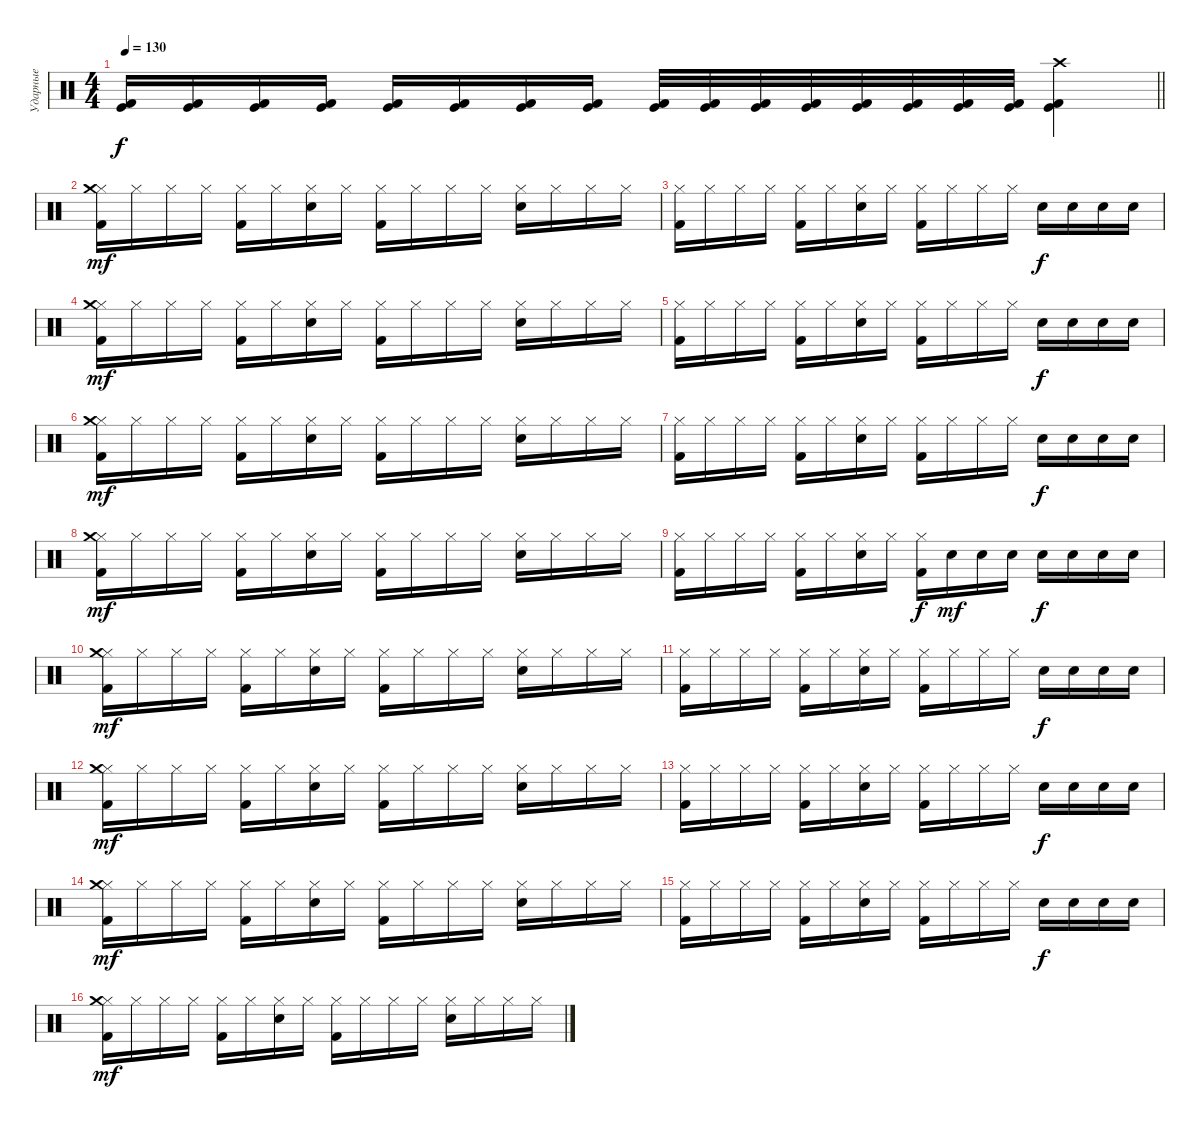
\track ("Ударные" "Ударные") {instrument percussion}
\staff {score}
\articulation defaults
\ts (4 4)
\tempo 130
\clef neutral
\barLineRight lightlight
\ks c
("Kick (hit) 2" "Kick (hit)").16{dy f} ("Kick (hit) 2" "Kick (hit)").16 ("Kick (hit) 2" "Kick (hit)").16 ("Kick (hit) 2" "Kick (hit)").16 ("Kick (hit) 2" "Kick (hit)").16 ("Kick (hit) 2" "Kick (hit)").16 ("Kick (hit) 2" "Kick (hit)").16 ("Kick (hit) 2" "Kick (hit)").16 ("Kick (hit) 2" "Kick (hit)").32 ("Kick (hit) 2" "Kick (hit)").32 ("Kick (hit) 2" "Kick (hit)").32 ("Kick (hit) 2" "Kick (hit)").32 ("Kick (hit) 2" "Kick (hit)").32 ("Kick (hit) 2" "Kick (hit)").32 ("Kick (hit) 2" "Kick (hit)").32 ("Kick (hit) 2" "Kick (hit)").32 ("Kick (hit) 2" "Kick (hit)" "Crash high (hit)").4 |
("Hi-Hat (closed)" "Crash medium (hit)" "Kick (hit) 2").16{dy mf} "Hi-Hat (closed)".16 "Hi-Hat (closed)".16 "Hi-Hat (closed)".16 ("Hi-Hat (closed)" "Kick (hit) 2").16 "Hi-Hat (closed)".16 ("Hi-Hat (closed)" "Electric Snare (hit)").16 "Hi-Hat (closed)".16 ("Hi-Hat (closed)" "Kick (hit) 2").16 "Hi-Hat (closed)".16 "Hi-Hat (closed)".16 "Hi-Hat (closed)".16 ("Hi-Hat (closed)" "Electric Snare (hit)").16 "Hi-Hat (closed)".16 "Hi-Hat (closed)".16 "Hi-Hat (closed)".16 |
("Hi-Hat (closed)" "Kick (hit) 2").16 "Hi-Hat (closed)".16 "Hi-Hat (closed)".16 "Hi-Hat (closed)".16 ("Hi-Hat (closed)" "Kick (hit) 2").16 "Hi-Hat (closed)".16 ("Hi-Hat (closed)" "Electric Snare (hit)").16 "Hi-Hat (closed)".16 ("Hi-Hat (closed)" "Kick (hit) 2").16 "Hi-Hat (closed)".16 "Hi-Hat (closed)".16 "Hi-Hat (closed)".16 "Electric Snare (hit)".16{dy f} "Electric Snare (hit)".16 "Electric Snare (hit)".16 "Electric Snare (hit)".16 |
("Hi-Hat (closed)" "Crash medium (hit)" "Kick (hit) 2").16{dy mf} "Hi-Hat (closed)".16 "Hi-Hat (closed)".16 "Hi-Hat (closed)".16 ("Hi-Hat (closed)" "Kick (hit) 2").16 "Hi-Hat (closed)".16 ("Hi-Hat (closed)" "Electric Snare (hit)").16 "Hi-Hat (closed)".16 ("Hi-Hat (closed)" "Kick (hit) 2").16 "Hi-Hat (closed)".16 "Hi-Hat (closed)".16 "Hi-Hat (closed)".16 ("Hi-Hat (closed)" "Electric Snare (hit)").16 "Hi-Hat (closed)".16 "Hi-Hat (closed)".16 "Hi-Hat (closed)".16 |
("Hi-Hat (closed)" "Kick (hit) 2").16 "Hi-Hat (closed)".16 "Hi-Hat (closed)".16 "Hi-Hat (closed)".16 ("Hi-Hat (closed)" "Kick (hit) 2").16 "Hi-Hat (closed)".16 ("Hi-Hat (closed)" "Electric Snare (hit)").16 "Hi-Hat (closed)".16 ("Hi-Hat (closed)" "Kick (hit) 2").16 "Hi-Hat (closed)".16 "Hi-Hat (closed)".16 "Hi-Hat (closed)".16 "Electric Snare (hit)".16{dy f} "Electric Snare (hit)".16 "Electric Snare (hit)".16 "Electric Snare (hit)".16 |
("Hi-Hat (closed)" "Crash medium (hit)" "Kick (hit) 2").16{dy mf} "Hi-Hat (closed)".16 "Hi-Hat (closed)".16 "Hi-Hat (closed)".16 ("Hi-Hat (closed)" "Kick (hit) 2").16 "Hi-Hat (closed)".16 ("Hi-Hat (closed)" "Electric Snare (hit)").16 "Hi-Hat (closed)".16 ("Hi-Hat (closed)" "Kick (hit) 2").16 "Hi-Hat (closed)".16 "Hi-Hat (closed)".16 "Hi-Hat (closed)".16 ("Hi-Hat (closed)" "Electric Snare (hit)").16 "Hi-Hat (closed)".16 "Hi-Hat (closed)".16 "Hi-Hat (closed)".16 |
("Hi-Hat (closed)" "Kick (hit) 2").16 "Hi-Hat (closed)".16 "Hi-Hat (closed)".16 "Hi-Hat (closed)".16 ("Hi-Hat (closed)" "Kick (hit) 2").16 "Hi-Hat (closed)".16 ("Hi-Hat (closed)" "Electric Snare (hit)").16 "Hi-Hat (closed)".16 ("Hi-Hat (closed)" "Kick (hit) 2").16 "Hi-Hat (closed)".16 "Hi-Hat (closed)".16 "Hi-Hat (closed)".16 "Electric Snare (hit)".16{dy f} "Electric Snare (hit)".16 "Electric Snare (hit)".16 "Electric Snare (hit)".16 |
("Hi-Hat (closed)" "Crash medium (hit)" "Kick (hit) 2").16{dy mf} "Hi-Hat (closed)".16 "Hi-Hat (closed)".16 "Hi-Hat (closed)".16 ("Hi-Hat (closed)" "Kick (hit) 2").16 "Hi-Hat (closed)".16 ("Hi-Hat (closed)" "Electric Snare (hit)").16 "Hi-Hat (closed)".16 ("Hi-Hat (closed)" "Kick (hit) 2").16 "Hi-Hat (closed)".16 "Hi-Hat (closed)".16 "Hi-Hat (closed)".16 ("Hi-Hat (closed)" "Electric Snare (hit)").16 "Hi-Hat (closed)".16 "Hi-Hat (closed)".16 "Hi-Hat (closed)".16 |
("Hi-Hat (closed)" "Kick (hit) 2").16 "Hi-Hat (closed)".16 "Hi-Hat (closed)".16 "Hi-Hat (closed)".16 ("Hi-Hat (closed)" "Kick (hit) 2").16 "Hi-Hat (closed)".16 ("Hi-Hat (closed)" "Electric Snare (hit)").16 "Hi-Hat (closed)".16 ("Hi-Hat (closed)" "Kick (hit) 2").16{dy f} "Electric Snare (hit)".16{dy mf} "Electric Snare (hit)".16 "Electric Snare (hit)".16 "Electric Snare (hit)".16{dy f} "Electric Snare (hit)".16 "Electric Snare (hit)".16 "Electric Snare (hit)".16 |
("Hi-Hat (closed)" "Crash medium (hit)" "Kick (hit) 2").16{dy mf} "Hi-Hat (closed)".16 "Hi-Hat (closed)".16 "Hi-Hat (closed)".16 ("Hi-Hat (closed)" "Kick (hit) 2").16 "Hi-Hat (closed)".16 ("Hi-Hat (closed)" "Electric Snare (hit)").16 "Hi-Hat (closed)".16 ("Hi-Hat (closed)" "Kick (hit) 2").16 "Hi-Hat (closed)".16 "Hi-Hat (closed)".16 "Hi-Hat (closed)".16 ("Hi-Hat (closed)" "Electric Snare (hit)").16 "Hi-Hat (closed)".16 "Hi-Hat (closed)".16 "Hi-Hat (closed)".16 |
("Hi-Hat (closed)" "Kick (hit) 2").16 "Hi-Hat (closed)".16 "Hi-Hat (closed)".16 "Hi-Hat (closed)".16 ("Hi-Hat (closed)" "Kick (hit) 2").16 "Hi-Hat (closed)".16 ("Hi-Hat (closed)" "Electric Snare (hit)").16 "Hi-Hat (closed)".16 ("Hi-Hat (closed)" "Kick (hit) 2").16 "Hi-Hat (closed)".16 "Hi-Hat (closed)".16 "Hi-Hat (closed)".16 "Electric Snare (hit)".16{dy f} "Electric Snare (hit)".16 "Electric Snare (hit)".16 "Electric Snare (hit)".16 |
("Hi-Hat (closed)" "Crash medium (hit)" "Kick (hit) 2").16{dy mf} "Hi-Hat (closed)".16 "Hi-Hat (closed)".16 "Hi-Hat (closed)".16 ("Hi-Hat (closed)" "Kick (hit) 2").16 "Hi-Hat (closed)".16 ("Hi-Hat (closed)" "Electric Snare (hit)").16 "Hi-Hat (closed)".16 ("Hi-Hat (closed)" "Kick (hit) 2").16 "Hi-Hat (closed)".16 "Hi-Hat (closed)".16 "Hi-Hat (closed)".16 ("Hi-Hat (closed)" "Electric Snare (hit)").16 "Hi-Hat (closed)".16 "Hi-Hat (closed)".16 "Hi-Hat (closed)".16 |
("Hi-Hat (closed)" "Kick (hit) 2").16 "Hi-Hat (closed)".16 "Hi-Hat (closed)".16 "Hi-Hat (closed)".16 ("Hi-Hat (closed)" "Kick (hit) 2").16 "Hi-Hat (closed)".16 ("Hi-Hat (closed)" "Electric Snare (hit)").16 "Hi-Hat (closed)".16 ("Hi-Hat (closed)" "Kick (hit) 2").16 "Hi-Hat (closed)".16 "Hi-Hat (closed)".16 "Hi-Hat (closed)".16 "Electric Snare (hit)".16{dy f} "Electric Snare (hit)".16 "Electric Snare (hit)".16 "Electric Snare (hit)".16 |
("Hi-Hat (closed)" "Crash medium (hit)" "Kick (hit) 2").16{dy mf} "Hi-Hat (closed)".16 "Hi-Hat (closed)".16 "Hi-Hat (closed)".16 ("Hi-Hat (closed)" "Kick (hit) 2").16 "Hi-Hat (closed)".16 ("Hi-Hat (closed)" "Electric Snare (hit)").16 "Hi-Hat (closed)".16 ("Hi-Hat (closed)" "Kick (hit) 2").16 "Hi-Hat (closed)".16 "Hi-Hat (closed)".16 "Hi-Hat (closed)".16 ("Hi-Hat (closed)" "Electric Snare (hit)").16 "Hi-Hat (closed)".16 "Hi-Hat (closed)".16 "Hi-Hat (closed)".16 |
("Hi-Hat (closed)" "Kick (hit) 2").16 "Hi-Hat (closed)".16 "Hi-Hat (closed)".16 "Hi-Hat (closed)".16 ("Hi-Hat (closed)" "Kick (hit) 2").16 "Hi-Hat (closed)".16 ("Hi-Hat (closed)" "Electric Snare (hit)").16 "Hi-Hat (closed)".16 ("Hi-Hat (closed)" "Kick (hit) 2").16 "Hi-Hat (closed)".16 "Hi-Hat (closed)".16 "Hi-Hat (closed)".16 "Electric Snare (hit)".16{dy f} "Electric Snare (hit)".16 "Electric Snare (hit)".16 "Electric Snare (hit)".16 |
("Hi-Hat (closed)" "Crash medium (hit)" "Kick (hit) 2").16{dy mf} "Hi-Hat (closed)".16 "Hi-Hat (closed)".16 "Hi-Hat (closed)".16 ("Hi-Hat (closed)" "Kick (hit) 2").16 "Hi-Hat (closed)".16 ("Hi-Hat (closed)" "Electric Snare (hit)").16 "Hi-Hat (closed)".16 ("Hi-Hat (closed)" "Kick (hit) 2").16 "Hi-Hat (closed)".16 "Hi-Hat (closed)".16 "Hi-Hat (closed)".16 ("Hi-Hat (closed)" "Electric Snare (hit)").16 "Hi-Hat (closed)".16 "Hi-Hat (closed)".16 "Hi-Hat (closed)".16
